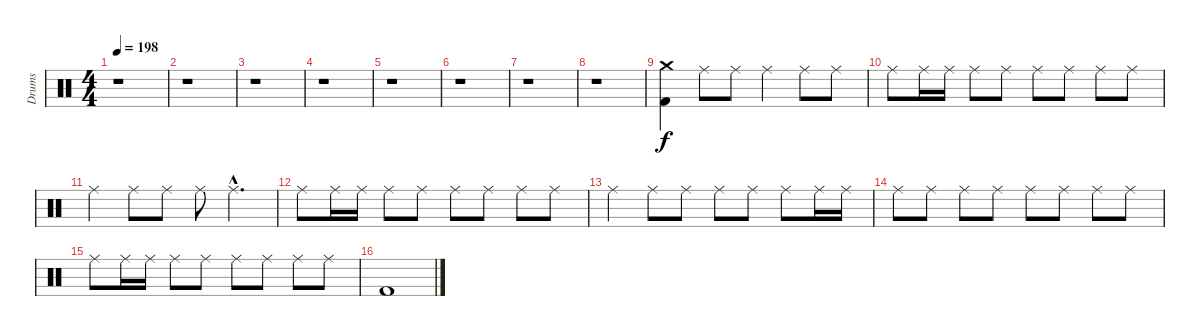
\track ("Drums" "Drums") {instrument percussion}
\staff {score}
\articulation defaults
\ts (4 4)
\tempo 198
\clef neutral
\ks c
r.1{dy f} |
r.1 |
r.1 |
r.1 |
r.1 |
r.1 |
r.1 |
r.1 |
("Crash medium (hit)" "Kick (hit) 2").4 "Ride (middle)".8 "Ride (middle)".8 "Ride (middle)".4 "Ride (middle)".8 "Ride (middle)".8 |
"Ride (middle)".8 "Ride (middle)".16 "Ride (middle)".16 "Ride (middle)".8 "Ride (middle)".8 "Ride (middle)".8 "Ride (middle)".8 "Ride (middle)".8 "Ride (middle)".8 |
"Ride (middle)".4 "Ride (middle)".8 "Ride (middle)".8 "Ride (middle)".8 "Ride (middle)"{hac}.4{d} |
"Ride (middle)".8 "Ride (middle)".16 "Ride (middle)".16 "Ride (middle)".8 "Ride (middle)".8 "Ride (middle)".8 "Ride (middle)".8 "Ride (middle)".8 "Ride (middle)".8 |
"Ride (middle)".4 "Ride (middle)".8 "Ride (middle)".8 "Ride (middle)".8 "Ride (middle)".8 "Ride (middle)".8 "Ride (middle)".16 "Ride (middle)".16 |
"Ride (middle)".8 "Ride (middle)".8 "Ride (middle)".8 "Ride (middle)".8 "Ride (middle)".8 "Ride (middle)".8 "Ride (middle)".8 "Ride (middle)".8 |
"Ride (middle)".8 "Ride (middle)".16 "Ride (middle)".16 "Ride (middle)".8 "Ride (middle)".8 "Ride (middle)".8 "Ride (middle)".8 "Ride (middle)".8 "Ride (middle)".8 |
"Kick (hit) 2".1
